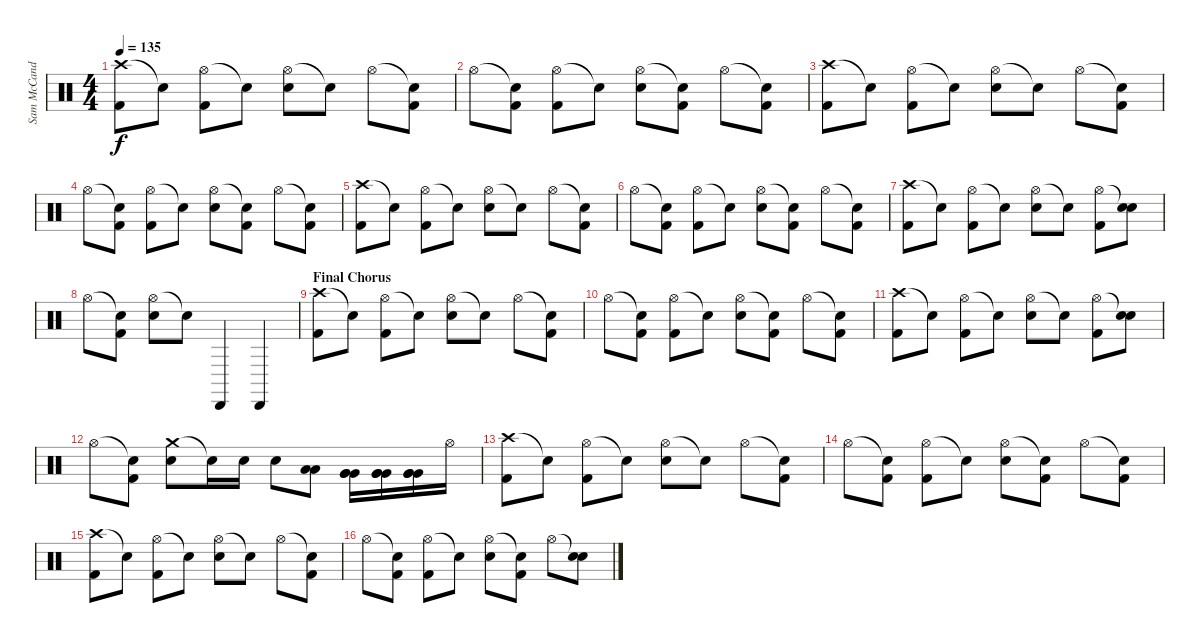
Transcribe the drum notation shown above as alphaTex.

\track ("Sam McCandless (Drums)" "Sam McCand") {instrument percussion}
\staff {score}
\articulation defaults
\ts (4 4)
\tempo 135
\clef neutral
\ks c
("Crash high (hit)" "Kick (hit) 2").8{dy f} "Snare (hit)"{t}.8 ("Hi-Hat (open)" "Kick (hit) 2").8 "Snare (hit)"{t}.8 ("Hi-Hat (open)" "Electric Snare (hit)").8 "Snare (hit)"{t}.8 "Hi-Hat (open)".8 ("Snare (hit)"{t} "Kick (hit) 2").8 |
"Hi-Hat (open)".8 ("Snare (hit)"{t} "Kick (hit) 2").8 ("Hi-Hat (open)" "Kick (hit) 2").8 "Snare (hit)"{t}.8 ("Hi-Hat (open)" "Electric Snare (hit)").8 ("Snare (hit)"{t} "Kick (hit) 2").8 "Hi-Hat (open)".8 ("Snare (hit)"{t} "Kick (hit) 2").8 |
("Crash high (hit)" "Kick (hit) 2").8 "Snare (hit)"{t}.8 ("Hi-Hat (open)" "Kick (hit) 2").8 "Snare (hit)"{t}.8 ("Hi-Hat (open)" "Electric Snare (hit)").8 "Snare (hit)"{t}.8 "Hi-Hat (open)".8 ("Snare (hit)"{t} "Kick (hit) 2").8 |
"Hi-Hat (open)".8 ("Snare (hit)"{t} "Kick (hit) 2").8 ("Hi-Hat (open)" "Kick (hit) 2").8 "Snare (hit)"{t}.8 ("Hi-Hat (open)" "Electric Snare (hit)").8 ("Snare (hit)"{t} "Kick (hit) 2").8 "Hi-Hat (open)".8 ("Snare (hit)"{t} "Kick (hit) 2").8 |
("Crash high (hit)" "Kick (hit) 2").8 "Snare (hit)"{t}.8 ("Hi-Hat (open)" "Kick (hit) 2").8 "Snare (hit)"{t}.8 ("Hi-Hat (open)" "Electric Snare (hit)").8 "Snare (hit)"{t}.8 "Hi-Hat (open)".8 ("Snare (hit)"{t} "Kick (hit) 2").8 |
"Hi-Hat (open)".8 ("Snare (hit)"{t} "Kick (hit) 2").8 ("Hi-Hat (open)" "Kick (hit) 2").8 "Snare (hit)"{t}.8 ("Hi-Hat (open)" "Electric Snare (hit)").8 ("Snare (hit)"{t} "Kick (hit) 2").8 "Hi-Hat (open)".8 ("Snare (hit)"{t} "Kick (hit) 2").8 |
("Crash high (hit)" "Kick (hit) 2").8 "Snare (hit)"{t}.8 ("Hi-Hat (open)" "Kick (hit) 2").8 "Snare (hit)"{t}.8 ("Hi-Hat (open)" "Electric Snare (hit)").8 "Snare (hit)"{t}.8 ("Hi-Hat (open)" "Kick (hit) 2").8 ("Snare (hit)"{t} "Electric Snare (hit)").8 |
"Hi-Hat (open)".8 ("Snare (hit)"{t} "Kick (hit) 2").8 ("Hi-Hat (open)" "Electric Snare (hit)").8 "Snare (hit)"{t}.8 "Cabasa (hit)".4 "Cabasa (hit)".4 |
\section ("" "Final Chorus")
("Crash high (hit)" "Kick (hit) 2").8 "Snare (hit)"{t}.8 ("Hi-Hat (open)" "Kick (hit) 2").8 "Snare (hit)"{t}.8 ("Hi-Hat (open)" "Electric Snare (hit)").8 "Snare (hit)"{t}.8 "Hi-Hat (open)".8 ("Snare (hit)"{t} "Kick (hit) 2").8 |
"Hi-Hat (open)".8 ("Snare (hit)"{t} "Kick (hit) 2").8 ("Hi-Hat (open)" "Kick (hit) 2").8 "Snare (hit)"{t}.8 ("Hi-Hat (open)" "Electric Snare (hit)").8 ("Snare (hit)"{t} "Kick (hit) 2").8 "Hi-Hat (open)".8 ("Snare (hit)"{t} "Kick (hit) 2").8 |
("Crash high (hit)" "Kick (hit) 2").8 "Snare (hit)"{t}.8 ("Hi-Hat (open)" "Kick (hit) 2").8 "Snare (hit)"{t}.8 ("Hi-Hat (open)" "Electric Snare (hit)").8 "Snare (hit)"{t}.8 ("Hi-Hat (open)" "Kick (hit) 2").8 ("Snare (hit)"{t} "Electric Snare (hit)").8 |
"Hi-Hat (open)".8 ("Snare (hit)"{t} "Kick (hit) 2").8 ("Crash medium (hit)" "Electric Snare (hit)").8 "Snare (hit)"{t}.16 "Electric Snare (hit)".16 "Electric Snare (hit)".8 ("Low Tom (hit)" "Low Tom (hit)").8 ("Very Low Tom (hit)" "Very Low Tom (hit)" "Very Low Tom (hit)").16 ("Very Low Tom (hit)" "Very Low Tom (hit)" "Very Low Tom (hit)").16 ("Very Low Tom (hit)" "Very Low Tom (hit)" "Very Low Tom (hit)").16 "Hi-Hat (open)".16 |
("Crash high (hit)" "Kick (hit) 2").8 "Snare (hit)"{t}.8 ("Hi-Hat (open)" "Kick (hit) 2").8 "Snare (hit)"{t}.8 ("Hi-Hat (open)" "Electric Snare (hit)").8 "Snare (hit)"{t}.8 "Hi-Hat (open)".8 ("Snare (hit)"{t} "Kick (hit) 2").8 |
"Hi-Hat (open)".8 ("Snare (hit)"{t} "Kick (hit) 2").8 ("Hi-Hat (open)" "Kick (hit) 2").8 "Snare (hit)"{t}.8 ("Hi-Hat (open)" "Electric Snare (hit)").8 ("Snare (hit)"{t} "Kick (hit) 2").8 "Hi-Hat (open)".8 ("Snare (hit)"{t} "Kick (hit) 2").8 |
("Crash high (hit)" "Kick (hit) 2").8 "Snare (hit)"{t}.8 ("Hi-Hat (open)" "Kick (hit) 2").8 "Snare (hit)"{t}.8 ("Hi-Hat (open)" "Electric Snare (hit)").8 "Snare (hit)"{t}.8 "Hi-Hat (open)".8 ("Snare (hit)"{t} "Kick (hit) 2").8 |
"Hi-Hat (open)".8 ("Snare (hit)"{t} "Kick (hit) 2").8 ("Hi-Hat (open)" "Kick (hit) 2").8 "Snare (hit)"{t}.8 ("Hi-Hat (open)" "Electric Snare (hit)").8 ("Snare (hit)"{t} "Kick (hit) 2").8 "Hi-Hat (open)".8 ("Snare (hit)"{t} "Electric Snare (hit)").8
